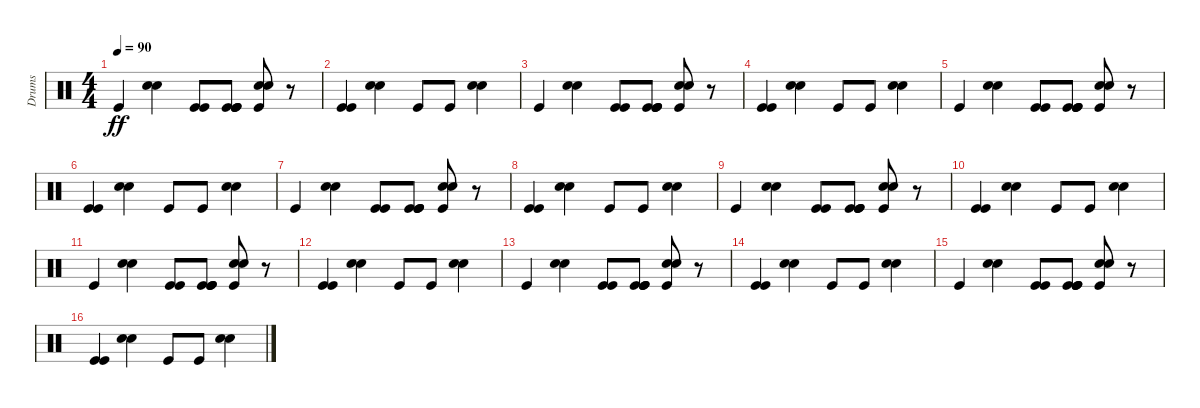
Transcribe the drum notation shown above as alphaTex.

\track ("Drums" "Drums") {instrument percussion}
\staff {score}
\articulation defaults
\ts (4 4)
\tempo 90
\clef neutral
\ks c "Kick (hit)".4{dy ff}
("Snare (hit) 2" "Hand Clap (hit)").4 ("Kick (hit)" "Kick (hit)").8 ("Kick (hit)" "Kick (hit)" "Kick (hit)" "Kick (hit)").8 ("Snare (hit) 2" "Hand Clap (hit)" "Kick (hit)").8 r.8 |
("Kick (hit)" "Kick (hit)").4 ("Snare (hit) 2" "Hand Clap (hit)").4 "Kick (hit)".8 "Kick (hit)".8 ("Snare (hit) 2" "Hand Clap (hit)").4 |
"Kick (hit)".4 ("Snare (hit) 2" "Hand Clap (hit)").4 ("Kick (hit)" "Kick (hit)").8 ("Kick (hit)" "Kick (hit)" "Kick (hit)" "Kick (hit)").8 ("Snare (hit) 2" "Hand Clap (hit)" "Kick (hit)").8 r.8 |
("Kick (hit)" "Kick (hit)").4 ("Snare (hit) 2" "Hand Clap (hit)").4 "Kick (hit)".8 "Kick (hit)".8 ("Snare (hit) 2" "Hand Clap (hit)").4 |
"Kick (hit)".4 ("Snare (hit) 2" "Hand Clap (hit)").4 ("Kick (hit)" "Kick (hit)").8 ("Kick (hit)" "Kick (hit)" "Kick (hit)" "Kick (hit)").8 ("Snare (hit) 2" "Hand Clap (hit)" "Kick (hit)").8 r.8 |
("Kick (hit)" "Kick (hit)").4 ("Snare (hit) 2" "Hand Clap (hit)").4 "Kick (hit)".8 "Kick (hit)".8 ("Snare (hit) 2" "Hand Clap (hit)").4 |
"Kick (hit)".4 ("Snare (hit) 2" "Hand Clap (hit)").4 ("Kick (hit)" "Kick (hit)").8 ("Kick (hit)" "Kick (hit)" "Kick (hit)" "Kick (hit)").8 ("Snare (hit) 2" "Hand Clap (hit)" "Kick (hit)").8 r.8 |
("Kick (hit)" "Kick (hit)").4 ("Snare (hit) 2" "Hand Clap (hit)").4 "Kick (hit)".8 "Kick (hit)".8 ("Snare (hit) 2" "Hand Clap (hit)").4 |
"Kick (hit)".4 ("Snare (hit) 2" "Hand Clap (hit)").4 ("Kick (hit)" "Kick (hit)").8 ("Kick (hit)" "Kick (hit)" "Kick (hit)" "Kick (hit)").8 ("Snare (hit) 2" "Hand Clap (hit)" "Kick (hit)").8 r.8 |
("Kick (hit)" "Kick (hit)").4 ("Snare (hit) 2" "Hand Clap (hit)").4 "Kick (hit)".8 "Kick (hit)".8 ("Snare (hit) 2" "Hand Clap (hit)").4 |
"Kick (hit)".4 ("Snare (hit) 2" "Hand Clap (hit)").4 ("Kick (hit)" "Kick (hit)").8 ("Kick (hit)" "Kick (hit)" "Kick (hit)" "Kick (hit)").8 ("Snare (hit) 2" "Hand Clap (hit)" "Kick (hit)").8 r.8 |
("Kick (hit)" "Kick (hit)").4 ("Snare (hit) 2" "Hand Clap (hit)").4 "Kick (hit)".8 "Kick (hit)".8 ("Snare (hit) 2" "Hand Clap (hit)").4 |
"Kick (hit)".4 ("Snare (hit) 2" "Hand Clap (hit)").4 ("Kick (hit)" "Kick (hit)").8 ("Kick (hit)" "Kick (hit)" "Kick (hit)" "Kick (hit)").8 ("Snare (hit) 2" "Hand Clap (hit)" "Kick (hit)").8 r.8 |
("Kick (hit)" "Kick (hit)").4 ("Snare (hit) 2" "Hand Clap (hit)").4 "Kick (hit)".8 "Kick (hit)".8 ("Snare (hit) 2" "Hand Clap (hit)").4 |
"Kick (hit)".4 ("Snare (hit) 2" "Hand Clap (hit)").4 ("Kick (hit)" "Kick (hit)").8 ("Kick (hit)" "Kick (hit)" "Kick (hit)" "Kick (hit)").8 ("Snare (hit) 2" "Hand Clap (hit)" "Kick (hit)").8 r.8 |
("Kick (hit)" "Kick (hit)").4 ("Snare (hit) 2" "Hand Clap (hit)").4 "Kick (hit)".8 "Kick (hit)".8 ("Snare (hit) 2" "Hand Clap (hit)").4
